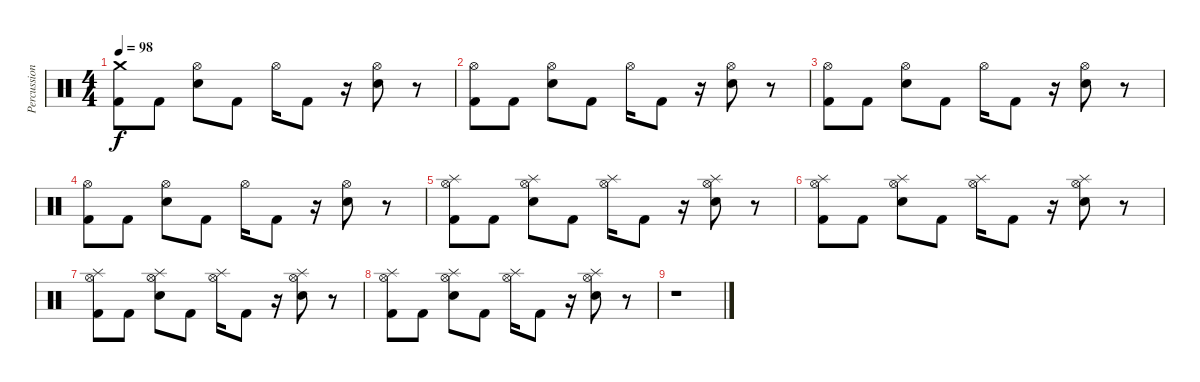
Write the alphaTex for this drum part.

\track ("Percussion" "Percussion") {instrument percussion}
\staff {score}
\articulation defaults
\ts (4 4)
\tempo 98
\clef neutral
\ks c
("Crash medium (hit)" "Kick (hit) 2").8{dy f} "Kick (hit) 2".8 ("Hi-Hat (open)" "Electric Snare (hit)").8 "Kick (hit) 2".8 "Hi-Hat (open)".16 "Kick (hit) 2".8 r.16 ("Hi-Hat (open)" "Electric Snare (hit)").8 r.8 |
("Hi-Hat (open)" "Kick (hit) 2").8 "Kick (hit) 2".8 ("Hi-Hat (open)" "Electric Snare (hit)").8 "Kick (hit) 2".8 "Hi-Hat (open)".16 "Kick (hit) 2".8 r.16 ("Hi-Hat (open)" "Electric Snare (hit)").8 r.8 |
("Hi-Hat (open)" "Kick (hit) 2").8 "Kick (hit) 2".8 ("Hi-Hat (open)" "Electric Snare (hit)").8 "Kick (hit) 2".8 "Hi-Hat (open)".16 "Kick (hit) 2".8 r.16 ("Hi-Hat (open)" "Electric Snare (hit)").8 r.8 |
("Hi-Hat (open)" "Kick (hit) 2").8 "Kick (hit) 2".8 ("Hi-Hat (open)" "Electric Snare (hit)").8 "Kick (hit) 2".8 "Hi-Hat (open)".16 "Kick (hit) 2".8 r.16 ("Hi-Hat (open)" "Electric Snare (hit)").8 r.8 |
("Hi-Hat (open)" "Splash (hit)" "Kick (hit) 2").8 "Kick (hit) 2".8 ("Hi-Hat (open)" "Splash (hit)" "Electric Snare (hit)").8 "Kick (hit) 2".8 ("Hi-Hat (open)" "Splash (hit)").16 "Kick (hit) 2".8 r.16 ("Hi-Hat (open)" "Splash (hit)" "Electric Snare (hit)").8 r.8 |
("Hi-Hat (open)" "Splash (hit)" "Kick (hit) 2").8 "Kick (hit) 2".8 ("Hi-Hat (open)" "Splash (hit)" "Electric Snare (hit)").8 "Kick (hit) 2".8 ("Hi-Hat (open)" "Splash (hit)").16 "Kick (hit) 2".8 r.16 ("Hi-Hat (open)" "Splash (hit)" "Electric Snare (hit)").8 r.8 |
("Hi-Hat (open)" "Splash (hit)" "Kick (hit) 2").8 "Kick (hit) 2".8 ("Hi-Hat (open)" "Splash (hit)" "Electric Snare (hit)").8 "Kick (hit) 2".8 ("Hi-Hat (open)" "Splash (hit)").16 "Kick (hit) 2".8 r.16 ("Hi-Hat (open)" "Splash (hit)" "Electric Snare (hit)").8 r.8 |
("Hi-Hat (open)" "Splash (hit)" "Kick (hit) 2").8 "Kick (hit) 2".8 ("Hi-Hat (open)" "Splash (hit)" "Electric Snare (hit)").8 "Kick (hit) 2".8 ("Hi-Hat (open)" "Splash (hit)").16 "Kick (hit) 2".8 r.16 ("Hi-Hat (open)" "Splash (hit)" "Electric Snare (hit)").8 r.8 |
r.1
